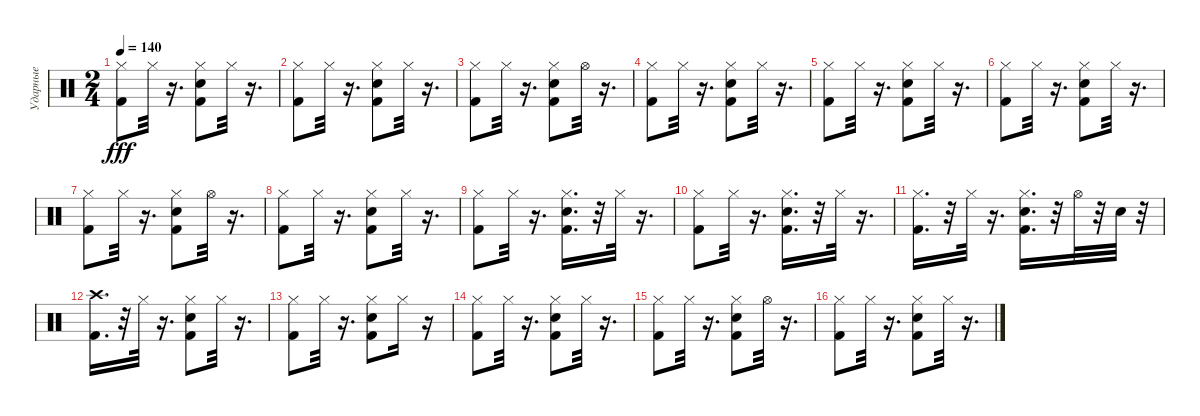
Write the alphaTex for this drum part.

\track ("Ударные" "Ударные") {instrument percussion}
\staff {score}
\articulation defaults
\ts (2 4)
\tempo 140
\clef neutral
\ks c
("Kick (hit) 2" "Hi-Hat (closed)").8{dy fff} "Hi-Hat (closed)".32 r.16{d} ("Kick (hit) 2" "Hi-Hat (closed)" "Snare (hit) 2").8 "Hi-Hat (closed)".32 r.16{d} |
("Kick (hit) 2" "Hi-Hat (closed)").8 "Hi-Hat (closed)".32 r.16{d} ("Snare (hit) 2" "Kick (hit) 2" "Hi-Hat (closed)").8 "Hi-Hat (closed)".32 r.16{d} |
("Kick (hit) 2" "Hi-Hat (closed)").8 "Hi-Hat (closed)".32 r.16{d} ("Snare (hit) 2" "Kick (hit) 2" "Hi-Hat (closed)").8 "Hi-Hat (open)".32 r.16{d} |
("Kick (hit) 2" "Hi-Hat (closed)").8 "Hi-Hat (closed)".32 r.16{d} ("Snare (hit) 2" "Kick (hit) 2" "Hi-Hat (closed)").8 "Hi-Hat (closed)".32 r.16{d} |
("Kick (hit) 2" "Hi-Hat (closed)").8 "Hi-Hat (closed)".32 r.16{d} ("Kick (hit) 2" "Hi-Hat (closed)" "Snare (hit) 2").8 "Hi-Hat (closed)".32 r.16{d} |
("Kick (hit) 2" "Hi-Hat (closed)").8 "Hi-Hat (closed)".32 r.16{d} ("Kick (hit) 2" "Hi-Hat (closed)" "Snare (hit) 2").8 "Hi-Hat (closed)".32 r.16{d} |
("Kick (hit) 2" "Hi-Hat (closed)").8 "Hi-Hat (closed)".32 r.16{d} ("Snare (hit) 2" "Kick (hit) 2" "Hi-Hat (closed)").8 "Hi-Hat (open)".32 r.16{d} |
("Kick (hit) 2" "Hi-Hat (closed)").8 "Hi-Hat (closed)".32 r.16{d} ("Snare (hit) 2" "Kick (hit) 2" "Hi-Hat (closed)").8 "Hi-Hat (closed)".32 r.16{d} |
("Kick (hit) 2" "Hi-Hat (closed)").8 "Hi-Hat (closed)".32 r.16{d} ("Snare (hit) 2" "Kick (hit) 2" "Hi-Hat (closed)").16{d} r.32 "Hi-Hat (closed)".32 r.16{d} |
("Kick (hit) 2" "Hi-Hat (closed)").8 "Hi-Hat (closed)".32 r.16{d} ("Snare (hit) 2" "Kick (hit) 2" "Hi-Hat (closed)").16{d} r.32 "Hi-Hat (closed)".32 r.16{d} |
("Kick (hit) 2" "Hi-Hat (closed)").16{d} r.32 "Hi-Hat (closed)".32 r.16{d} ("Kick (hit) 2" "Hi-Hat (closed)" "Snare (hit) 2").16{d} r.32 "Hi-Hat (open)".32 r.32 "Snare (hit) 2".32 r.32 |
("Kick (hit) 2" "Crash high (hit)").16{d} r.32 "Hi-Hat (closed)".32 r.16{d} ("Hi-Hat (closed)" "Kick (hit) 2" "Snare (hit) 2").8 "Hi-Hat (closed)".32 r.16{d} |
("Kick (hit) 2" "Hi-Hat (closed)").8 "Hi-Hat (closed)".32 r.16{d} ("Snare (hit) 2" "Kick (hit) 2" "Hi-Hat (closed)").8 "Hi-Hat (closed)".16 r.16 |
("Kick (hit) 2" "Hi-Hat (closed)").8 "Hi-Hat (closed)".32 r.16{d} ("Hi-Hat (closed)" "Snare (hit) 2" "Kick (hit) 2").8 "Hi-Hat (closed)".32 r.16{d} |
("Kick (hit) 2" "Hi-Hat (closed)").8 "Hi-Hat (closed)".32 r.16{d} ("Snare (hit) 2" "Hi-Hat (closed)" "Kick (hit) 2").8 "Hi-Hat (open)".32 r.16{d} |
("Kick (hit) 2" "Hi-Hat (closed)").8 "Hi-Hat (closed)".32 r.16{d} ("Snare (hit) 2" "Kick (hit) 2" "Hi-Hat (closed)").8 "Hi-Hat (closed)".32 r.16{d}
